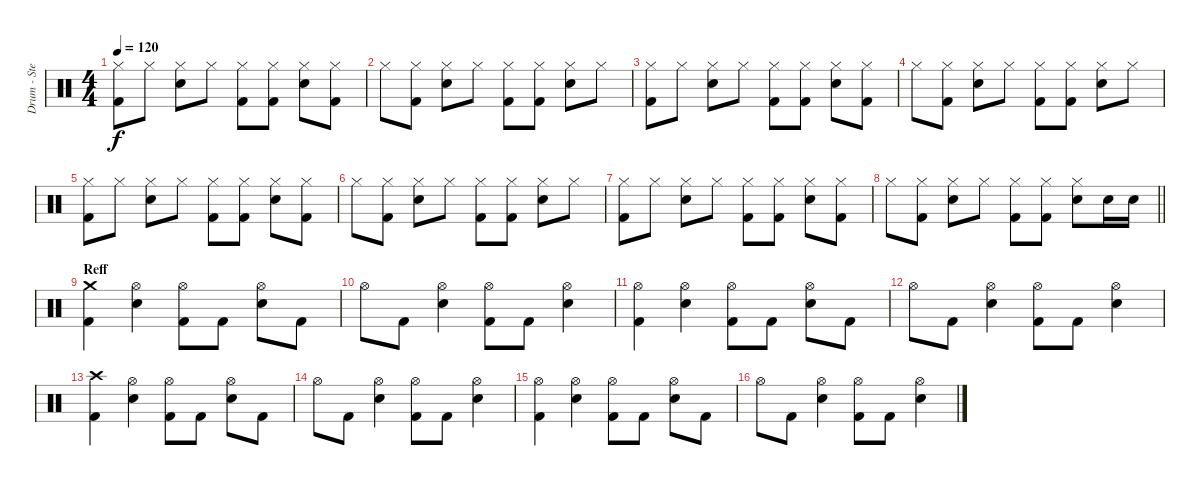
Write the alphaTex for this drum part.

\track ("Drum - Stevie Morley Item" "Drum - Ste") {instrument percussion}
\staff {score}
\articulation defaults
\ts (4 4)
\tempo 120
\clef neutral
\ks c
("Hi-Hat (closed)" "Kick (hit) 2").8{dy f} "Hi-Hat (closed)".8 ("Hi-Hat (closed)" "Snare (hit) 2").8 "Hi-Hat (closed)".8 ("Hi-Hat (closed)" "Kick (hit) 2").8 ("Hi-Hat (closed)" "Kick (hit) 2").8 ("Hi-Hat (closed)" "Snare (hit) 2").8 ("Hi-Hat (closed)" "Kick (hit) 2").8 |
"Hi-Hat (closed)".8 ("Hi-Hat (closed)" "Kick (hit) 2").8 ("Hi-Hat (closed)" "Snare (hit) 2").8 "Hi-Hat (closed)".8 ("Hi-Hat (closed)" "Kick (hit) 2").8 ("Hi-Hat (closed)" "Kick (hit) 2").8 ("Hi-Hat (closed)" "Snare (hit) 2").8 "Hi-Hat (closed)".8 |
("Hi-Hat (closed)" "Kick (hit) 2").8 "Hi-Hat (closed)".8 ("Hi-Hat (closed)" "Snare (hit) 2").8 "Hi-Hat (closed)".8 ("Hi-Hat (closed)" "Kick (hit) 2").8 ("Hi-Hat (closed)" "Kick (hit) 2").8 ("Hi-Hat (closed)" "Snare (hit) 2").8 ("Hi-Hat (closed)" "Kick (hit) 2").8 |
"Hi-Hat (closed)".8 ("Hi-Hat (closed)" "Kick (hit) 2").8 ("Hi-Hat (closed)" "Snare (hit) 2").8 "Hi-Hat (closed)".8 ("Hi-Hat (closed)" "Kick (hit) 2").8 ("Hi-Hat (closed)" "Kick (hit) 2").8 ("Hi-Hat (closed)" "Snare (hit) 2").8 "Hi-Hat (closed)".8 |
("Hi-Hat (closed)" "Kick (hit) 2").8 "Hi-Hat (closed)".8 ("Hi-Hat (closed)" "Snare (hit) 2").8 "Hi-Hat (closed)".8 ("Hi-Hat (closed)" "Kick (hit) 2").8 ("Hi-Hat (closed)" "Kick (hit) 2").8 ("Hi-Hat (closed)" "Snare (hit) 2").8 ("Hi-Hat (closed)" "Kick (hit) 2").8 |
"Hi-Hat (closed)".8 ("Hi-Hat (closed)" "Kick (hit) 2").8 ("Hi-Hat (closed)" "Snare (hit) 2").8 "Hi-Hat (closed)".8 ("Hi-Hat (closed)" "Kick (hit) 2").8 ("Hi-Hat (closed)" "Kick (hit) 2").8 ("Hi-Hat (closed)" "Snare (hit) 2").8 "Hi-Hat (closed)".8 |
("Hi-Hat (closed)" "Kick (hit) 2").8 "Hi-Hat (closed)".8 ("Hi-Hat (closed)" "Snare (hit) 2").8 "Hi-Hat (closed)".8 ("Hi-Hat (closed)" "Kick (hit) 2").8 ("Hi-Hat (closed)" "Kick (hit) 2").8 ("Hi-Hat (closed)" "Snare (hit) 2").8 ("Hi-Hat (closed)" "Kick (hit) 2").8 |
\barLineRight lightlight "Hi-Hat (closed)".8
("Hi-Hat (closed)" "Kick (hit) 2").8 ("Hi-Hat (closed)" "Snare (hit) 2").8 "Hi-Hat (closed)".8 ("Hi-Hat (closed)" "Kick (hit) 2").8 ("Hi-Hat (closed)" "Kick (hit) 2").8 ("Hi-Hat (closed)" "Snare (hit) 2").8 "Snare (hit) 2".16 "Snare (hit) 2".16 |
\section ("" "Reff")
("Crash medium (hit)" "Kick (hit) 2").4 ("Hi-Hat (open)" "Snare (hit) 2").4 ("Hi-Hat (open)" "Kick (hit) 2").8 "Kick (hit) 2".8 ("Hi-Hat (open)" "Snare (hit) 2").8 "Kick (hit) 2".8 |
"Hi-Hat (open)".8 "Kick (hit) 2".8 ("Hi-Hat (open)" "Snare (hit) 2").4 ("Hi-Hat (open)" "Kick (hit) 2").8 "Kick (hit) 2".8 ("Hi-Hat (open)" "Snare (hit) 2").4 |
("Hi-Hat (open)" "Kick (hit) 2").4 ("Hi-Hat (open)" "Snare (hit) 2").4 ("Hi-Hat (open)" "Kick (hit) 2").8 "Kick (hit) 2".8 ("Hi-Hat (open)" "Snare (hit) 2").8 "Kick (hit) 2".8 |
"Hi-Hat (open)".8 "Kick (hit) 2".8 ("Hi-Hat (open)" "Snare (hit) 2").4 ("Hi-Hat (open)" "Kick (hit) 2").8 "Kick (hit) 2".8 ("Hi-Hat (open)" "Snare (hit) 2").4 |
("Crash high (hit)" "Kick (hit) 2").4 ("Hi-Hat (open)" "Snare (hit) 2").4 ("Hi-Hat (open)" "Kick (hit) 2").8 "Kick (hit) 2".8 ("Hi-Hat (open)" "Snare (hit) 2").8 "Kick (hit) 2".8 |
"Hi-Hat (open)".8 "Kick (hit) 2".8 ("Hi-Hat (open)" "Snare (hit) 2").4 ("Hi-Hat (open)" "Kick (hit) 2").8 "Kick (hit) 2".8 ("Hi-Hat (open)" "Snare (hit) 2").4 |
("Hi-Hat (open)" "Kick (hit) 2").4 ("Hi-Hat (open)" "Snare (hit) 2").4 ("Hi-Hat (open)" "Kick (hit) 2").8 "Kick (hit) 2".8 ("Hi-Hat (open)" "Snare (hit) 2").8 "Kick (hit) 2".8 |
"Hi-Hat (open)".8 "Kick (hit) 2".8 ("Hi-Hat (open)" "Snare (hit) 2").4 ("Hi-Hat (open)" "Kick (hit) 2").8 "Kick (hit) 2".8 ("Hi-Hat (open)" "Snare (hit) 2").4
